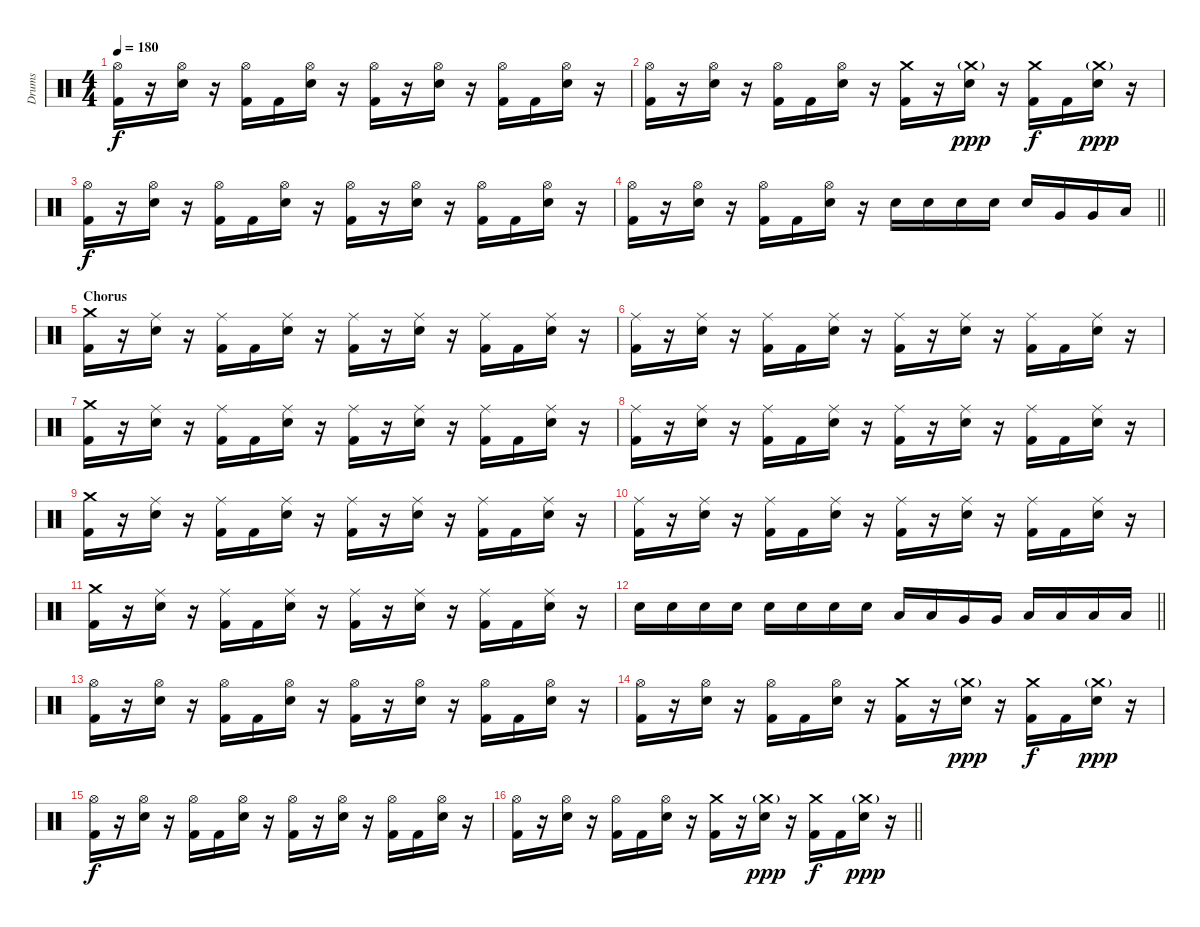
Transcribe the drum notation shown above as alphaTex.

\track ("Drums" "Drums") {instrument percussion}
\staff {score}
\articulation defaults
\ts (4 4)
\tempo 180
\clef neutral
\ks c
("Hi-Hat (open)" "Kick (hit) 2").16{dy f} r.16 ("Hi-Hat (open)" "Snare (hit) 2").16 r.16 ("Hi-Hat (open)" "Kick (hit) 2").16 "Kick (hit) 2".16 ("Hi-Hat (open)" "Snare (hit) 2").16 r.16 ("Hi-Hat (open)" "Kick (hit) 2").16 r.16 ("Hi-Hat (open)" "Snare (hit) 2").16 r.16 ("Hi-Hat (open)" "Kick (hit) 2").16 "Kick (hit) 2".16 ("Hi-Hat (open)" "Snare (hit) 2").16 r.16 |
("Hi-Hat (open)" "Kick (hit) 2").16 r.16 ("Hi-Hat (open)" "Snare (hit) 2").16 r.16 ("Hi-Hat (open)" "Kick (hit) 2").16 "Kick (hit) 2".16 ("Hi-Hat (open)" "Snare (hit) 2").16 r.16 ("Crash medium (hit)" "Kick (hit) 2").16 r.16 ("Crash medium (hit)"{g} "Snare (hit) 2").16{dy ppp} r.16 ("Crash medium (hit)" "Kick (hit) 2").16{dy f} "Kick (hit) 2".16 ("Crash medium (hit)"{g} "Snare (hit) 2").16{dy ppp} r.16 |
("Hi-Hat (open)" "Kick (hit) 2").16{dy f} r.16 ("Hi-Hat (open)" "Snare (hit) 2").16 r.16 ("Hi-Hat (open)" "Kick (hit) 2").16 "Kick (hit) 2".16 ("Hi-Hat (open)" "Snare (hit) 2").16 r.16 ("Hi-Hat (open)" "Kick (hit) 2").16 r.16 ("Hi-Hat (open)" "Snare (hit) 2").16 r.16 ("Hi-Hat (open)" "Kick (hit) 2").16 "Kick (hit) 2".16 ("Hi-Hat (open)" "Snare (hit) 2").16 r.16 |
\barLineRight lightlight
("Hi-Hat (open)" "Kick (hit) 2").16 r.16 ("Hi-Hat (open)" "Snare (hit) 2").16 r.16 ("Hi-Hat (open)" "Kick (hit) 2").16 "Kick (hit) 2".16 ("Hi-Hat (open)" "Snare (hit) 2").16 r.16 "Snare (hit) 2".16 "Snare (hit) 2".16 "Snare (hit) 2".16 "Snare (hit) 2".16 "Snare (hit) 2".16 "Very Low Tom (hit)".16 "Very Low Tom (hit)".16 "Low Floor Tom (hit)".16 |
\section ("" "Chorus")
("Crash medium (hit)" "Kick (hit) 2").16 r.16 ("Ride (middle)" "Snare (hit) 2").16 r.16 ("Ride (middle)" "Kick (hit) 2").16 "Kick (hit) 2".16 ("Ride (middle)" "Snare (hit) 2").16 r.16 ("Ride (middle)" "Kick (hit) 2").16 r.16 ("Ride (middle)" "Snare (hit) 2").16 r.16 ("Ride (middle)" "Kick (hit) 2").16 "Kick (hit) 2".16 ("Ride (middle)" "Snare (hit) 2").16 r.16 |
("Ride (middle)" "Kick (hit) 2").16 r.16 ("Ride (middle)" "Snare (hit) 2").16 r.16 ("Ride (middle)" "Kick (hit) 2").16 "Kick (hit) 2".16 ("Ride (middle)" "Snare (hit) 2").16 r.16 ("Ride (middle)" "Kick (hit) 2").16 r.16 ("Ride (middle)" "Snare (hit) 2").16 r.16 ("Ride (middle)" "Kick (hit) 2").16 "Kick (hit) 2".16 ("Ride (middle)" "Snare (hit) 2").16 r.16 |
("Crash medium (hit)" "Kick (hit) 2").16 r.16 ("Ride (middle)" "Snare (hit) 2").16 r.16 ("Ride (middle)" "Kick (hit) 2").16 "Kick (hit) 2".16 ("Ride (middle)" "Snare (hit) 2").16 r.16 ("Ride (middle)" "Kick (hit) 2").16 r.16 ("Ride (middle)" "Snare (hit) 2").16 r.16 ("Ride (middle)" "Kick (hit) 2").16 "Kick (hit) 2".16 ("Ride (middle)" "Snare (hit) 2").16 r.16 |
("Ride (middle)" "Kick (hit) 2").16 r.16 ("Ride (middle)" "Snare (hit) 2").16 r.16 ("Ride (middle)" "Kick (hit) 2").16 "Kick (hit) 2".16 ("Ride (middle)" "Snare (hit) 2").16 r.16 ("Ride (middle)" "Kick (hit) 2").16 r.16 ("Ride (middle)" "Snare (hit) 2").16 r.16 ("Ride (middle)" "Kick (hit) 2").16 "Kick (hit) 2".16 ("Ride (middle)" "Snare (hit) 2").16 r.16 |
("Crash medium (hit)" "Kick (hit) 2").16 r.16 ("Ride (middle)" "Snare (hit) 2").16 r.16 ("Ride (middle)" "Kick (hit) 2").16 "Kick (hit) 2".16 ("Ride (middle)" "Snare (hit) 2").16 r.16 ("Ride (middle)" "Kick (hit) 2").16 r.16 ("Ride (middle)" "Snare (hit) 2").16 r.16 ("Ride (middle)" "Kick (hit) 2").16 "Kick (hit) 2".16 ("Ride (middle)" "Snare (hit) 2").16 r.16 |
("Ride (middle)" "Kick (hit) 2").16 r.16 ("Ride (middle)" "Snare (hit) 2").16 r.16 ("Ride (middle)" "Kick (hit) 2").16 "Kick (hit) 2".16 ("Ride (middle)" "Snare (hit) 2").16 r.16 ("Ride (middle)" "Kick (hit) 2").16 r.16 ("Ride (middle)" "Snare (hit) 2").16 r.16 ("Ride (middle)" "Kick (hit) 2").16 "Kick (hit) 2".16 ("Ride (middle)" "Snare (hit) 2").16 r.16 |
("Crash medium (hit)" "Kick (hit) 2").16 r.16 ("Ride (middle)" "Snare (hit) 2").16 r.16 ("Ride (middle)" "Kick (hit) 2").16 "Kick (hit) 2".16 ("Ride (middle)" "Snare (hit) 2").16 r.16 ("Ride (middle)" "Kick (hit) 2").16 r.16 ("Ride (middle)" "Snare (hit) 2").16 r.16 ("Ride (middle)" "Kick (hit) 2").16 "Kick (hit) 2".16 ("Ride (middle)" "Snare (hit) 2").16 r.16 |
\barLineRight lightlight "Snare (hit) 2".16 "Snare (hit) 2".16 "Snare (hit) 2".16 "Snare (hit) 2".16 "Snare (hit) 2".16 "Snare (hit) 2".16 "Snare (hit) 2".16 "Snare (hit) 2".16 "Low Tom (hit)".16 "Low Tom (hit)".16 "Very Low Tom (hit)".16 "Very Low Tom (hit)".16 "Low Floor Tom (hit)".16 "Low Floor Tom (hit)".16 "Low Floor Tom (hit)".16 "Low Floor Tom (hit)".16
|
\section ("" "")
("Hi-Hat (open)" "Kick (hit) 2").16 r.16 ("Hi-Hat (open)" "Snare (hit) 2").16 r.16 ("Hi-Hat (open)" "Kick (hit) 2").16 "Kick (hit) 2".16 ("Hi-Hat (open)" "Snare (hit) 2").16 r.16 ("Hi-Hat (open)" "Kick (hit) 2").16 r.16 ("Hi-Hat (open)" "Snare (hit) 2").16 r.16 ("Hi-Hat (open)" "Kick (hit) 2").16 "Kick (hit) 2".16 ("Hi-Hat (open)" "Snare (hit) 2").16 r.16 |
("Hi-Hat (open)" "Kick (hit) 2").16 r.16 ("Hi-Hat (open)" "Snare (hit) 2").16 r.16 ("Hi-Hat (open)" "Kick (hit) 2").16 "Kick (hit) 2".16 ("Hi-Hat (open)" "Snare (hit) 2").16 r.16 ("Crash medium (hit)" "Kick (hit) 2").16 r.16 ("Crash medium (hit)"{g} "Snare (hit) 2").16{dy ppp} r.16 ("Crash medium (hit)" "Kick (hit) 2").16{dy f} "Kick (hit) 2".16 ("Crash medium (hit)"{g} "Snare (hit) 2").16{dy ppp} r.16 |
("Hi-Hat (open)" "Kick (hit) 2").16{dy f} r.16 ("Hi-Hat (open)" "Snare (hit) 2").16 r.16 ("Hi-Hat (open)" "Kick (hit) 2").16 "Kick (hit) 2".16 ("Hi-Hat (open)" "Snare (hit) 2").16 r.16 ("Hi-Hat (open)" "Kick (hit) 2").16 r.16 ("Hi-Hat (open)" "Snare (hit) 2").16 r.16 ("Hi-Hat (open)" "Kick (hit) 2").16 "Kick (hit) 2".16 ("Hi-Hat (open)" "Snare (hit) 2").16 r.16 |
\barLineRight lightlight
("Hi-Hat (open)" "Kick (hit) 2").16 r.16 ("Hi-Hat (open)" "Snare (hit) 2").16 r.16 ("Hi-Hat (open)" "Kick (hit) 2").16 "Kick (hit) 2".16 ("Hi-Hat (open)" "Snare (hit) 2").16 r.16 ("Crash medium (hit)" "Kick (hit) 2").16 r.16 ("Crash medium (hit)"{g} "Snare (hit) 2").16{dy ppp} r.16 ("Crash medium (hit)" "Kick (hit) 2").16{dy f} "Kick (hit) 2".16 ("Crash medium (hit)"{g} "Snare (hit) 2").16{dy ppp} r.16
